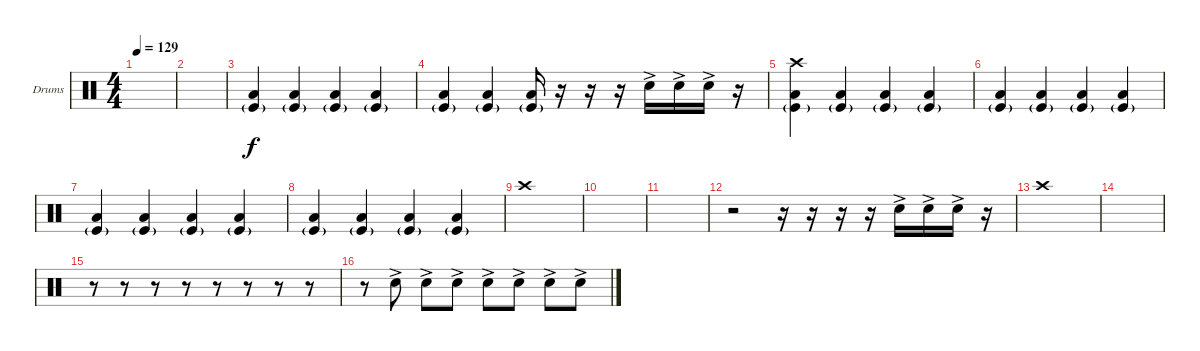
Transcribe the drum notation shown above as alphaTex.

\defaultSystemsLayout 4
\bracketExtendMode groupsimilarinstruments
\firstSystemTrackNameOrientation horizontal
\otherSystemsTrackNameOrientation horizontal
\track ("Drums" "Drums") {instrument percussion}
\staff {score}
\articulation defaults
\ts (4 4)
\tempo 129
\clef neutral
\scale
0.474178
\ks c
|
\scale
0.262911 |
\scale
0.262911 ("Kick (hit)"{g} "Low Tom (hit)").4 ("Kick (hit)"{g} "Low Tom (hit)").4 ("Kick (hit)"{g} "Low Tom (hit)").4 ("Kick (hit)"{g} "Low Tom (hit)").4 |
("Kick (hit)"{g} "Low Tom (hit)").4 ("Kick (hit)"{g} "Low Tom (hit)").4 ("Kick (hit)"{g} "Low Tom (hit)").16 r.16 r.16 r.16 "Snare (hit) 2"{ac}.16 "Snare (hit) 2"{ac}.16 "Snare (hit) 2"{ac}.16 r.16 |
("Crash high (hit)" "Kick (hit)"{g} "Low Tom (hit)").4 ("Kick (hit)"{g} "Low Tom (hit)").4 ("Kick (hit)"{g} "Low Tom (hit)").4 ("Kick (hit)"{g} "Low Tom (hit)").4 |
("Kick (hit)"{g} "Low Tom (hit)").4 ("Kick (hit)"{g} "Low Tom (hit)").4 ("Kick (hit)"{g} "Low Tom (hit)").4 ("Kick (hit)"{g} "Low Tom (hit)").4 |
("Kick (hit)"{g} "Low Tom (hit)").4 ("Kick (hit)"{g} "Low Tom (hit)").4 ("Kick (hit)"{g} "Low Tom (hit)").4 ("Kick (hit)"{g} "Low Tom (hit)").4 |
("Kick (hit)"{g} "Low Tom (hit)").4 ("Kick (hit)"{g} "Low Tom (hit)").4 ("Kick (hit)"{g} "Low Tom (hit)").4 ("Kick (hit)"{g} "Low Tom (hit)").4 |
"Crash high (hit)".1 |
|
|
r.2 r.16 r.16 r.16 r.16 "Snare (hit) 2"{ac}.16 "Snare (hit) 2"{ac}.16 "Snare (hit) 2"{ac}.16 r.16 |
"Crash high (hit)".1 |
|
r.8 r.8 r.8 r.8 r.8 r.8 r.8 r.8 |
r.8 "Snare (hit) 2"{ac}.8 "Snare (hit) 2"{ac}.8 "Snare (hit) 2"{ac}.8 "Snare (hit) 2"{ac}.8 "Snare (hit) 2"{ac}.8 "Snare (hit) 2"{ac}.8 "Snare (hit) 2"{ac}.8
